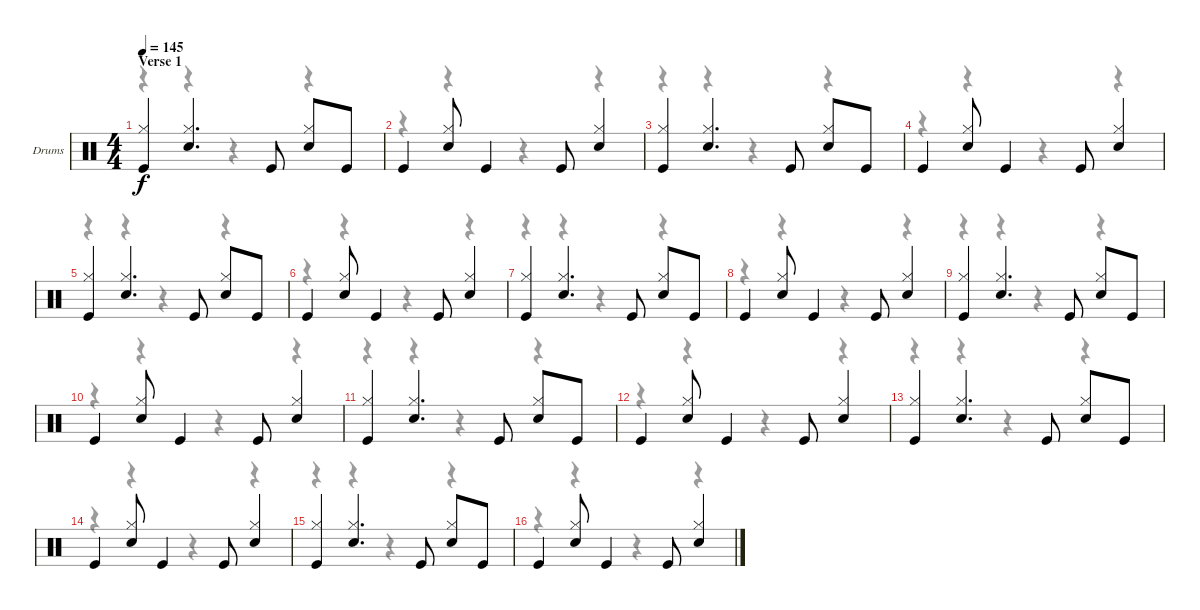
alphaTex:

\bracketExtendMode groupsimilarinstruments
\firstSystemTrackNameOrientation horizontal
\otherSystemsTrackNameOrientation horizontal
\track ("Drumkit" "Drums") {solo instrument percussion}
\staff {score}
\articulation defaults
\voice
\ts (4 4)
\section ("" "Verse 1")
\tempo 145
\clef neutral
\ks c
("Kick (hit)" "Hi-Hat (closed)").4{dy f} ("Snare (hit) 2" "Hi-Hat (closed)").4{d} "Kick (hit)".8 ("Snare (hit) 2" "Hi-Hat (closed)").8 "Kick (hit)".8 |
"Kick (hit)".4 ("Snare (hit) 2" "Hi-Hat (closed)").8 "Kick (hit)".4 "Kick (hit)".8 ("Snare (hit) 2" "Hi-Hat (closed)").4 |
("Kick (hit)" "Hi-Hat (closed)").4 ("Snare (hit) 2" "Hi-Hat (closed)").4{d} "Kick (hit)".8 ("Snare (hit) 2" "Hi-Hat (closed)").8 "Kick (hit)".8 |
"Kick (hit)".4 ("Snare (hit) 2" "Hi-Hat (closed)").8 "Kick (hit)".4 "Kick (hit)".8 ("Snare (hit) 2" "Hi-Hat (closed)").4 |
("Kick (hit)" "Hi-Hat (closed)").4 ("Snare (hit) 2" "Hi-Hat (closed)").4{d} "Kick (hit)".8 ("Snare (hit) 2" "Hi-Hat (closed)").8 "Kick (hit)".8 |
"Kick (hit)".4 ("Snare (hit) 2" "Hi-Hat (closed)").8 "Kick (hit)".4 "Kick (hit)".8 ("Snare (hit) 2" "Hi-Hat (closed)").4 |
("Kick (hit)" "Hi-Hat (closed)").4 ("Snare (hit) 2" "Hi-Hat (closed)").4{d} "Kick (hit)".8 ("Snare (hit) 2" "Hi-Hat (closed)").8 "Kick (hit)".8 |
"Kick (hit)".4 ("Snare (hit) 2" "Hi-Hat (closed)").8 "Kick (hit)".4 "Kick (hit)".8 ("Snare (hit) 2" "Hi-Hat (closed)").4 |
("Kick (hit)" "Hi-Hat (closed)").4 ("Snare (hit) 2" "Hi-Hat (closed)").4{d} "Kick (hit)".8 ("Snare (hit) 2" "Hi-Hat (closed)").8 "Kick (hit)".8 |
"Kick (hit)".4 ("Snare (hit) 2" "Hi-Hat (closed)").8 "Kick (hit)".4 "Kick (hit)".8 ("Snare (hit) 2" "Hi-Hat (closed)").4 |
("Kick (hit)" "Hi-Hat (closed)").4 ("Snare (hit) 2" "Hi-Hat (closed)").4{d} "Kick (hit)".8 ("Snare (hit) 2" "Hi-Hat (closed)").8 "Kick (hit)".8 |
"Kick (hit)".4 ("Snare (hit) 2" "Hi-Hat (closed)").8 "Kick (hit)".4 "Kick (hit)".8 ("Snare (hit) 2" "Hi-Hat (closed)").4 |
("Kick (hit)" "Hi-Hat (closed)").4 ("Snare (hit) 2" "Hi-Hat (closed)").4{d} "Kick (hit)".8 ("Snare (hit) 2" "Hi-Hat (closed)").8 "Kick (hit)".8 |
"Kick (hit)".4 ("Snare (hit) 2" "Hi-Hat (closed)").8 "Kick (hit)".4 "Kick (hit)".8 ("Snare (hit) 2" "Hi-Hat (closed)").4 |
("Kick (hit)" "Hi-Hat (closed)").4 ("Snare (hit) 2" "Hi-Hat (closed)").4{d} "Kick (hit)".8 ("Snare (hit) 2" "Hi-Hat (closed)").8 "Kick (hit)".8 |
"Kick (hit)".4 ("Snare (hit) 2" "Hi-Hat (closed)").8 "Kick (hit)".4 "Kick (hit)".8 ("Snare (hit) 2" "Hi-Hat (closed)").4
\voice
\clef neutral
\ottava regular
\simile none
\ks c
r.4{dy mf} r.4 r.4 r.4 |
r.4 r.4 r.4 r.4 |
r.4 r.4 r.4 r.4 |
r.4 r.4 r.4 r.4 |
r.4 r.4 r.4 r.4 |
r.4 r.4 r.4 r.4 |
r.4 r.4 r.4 r.4 |
r.4 r.4 r.4 r.4 |
r.4 r.4 r.4 r.4 |
r.4 r.4 r.4 r.4 |
r.4 r.4 r.4 r.4 |
r.4 r.4 r.4 r.4 |
r.4 r.4 r.4 r.4 |
r.4 r.4 r.4 r.4 |
r.4 r.4 r.4 r.4 |
r.4 r.4 r.4 r.4
